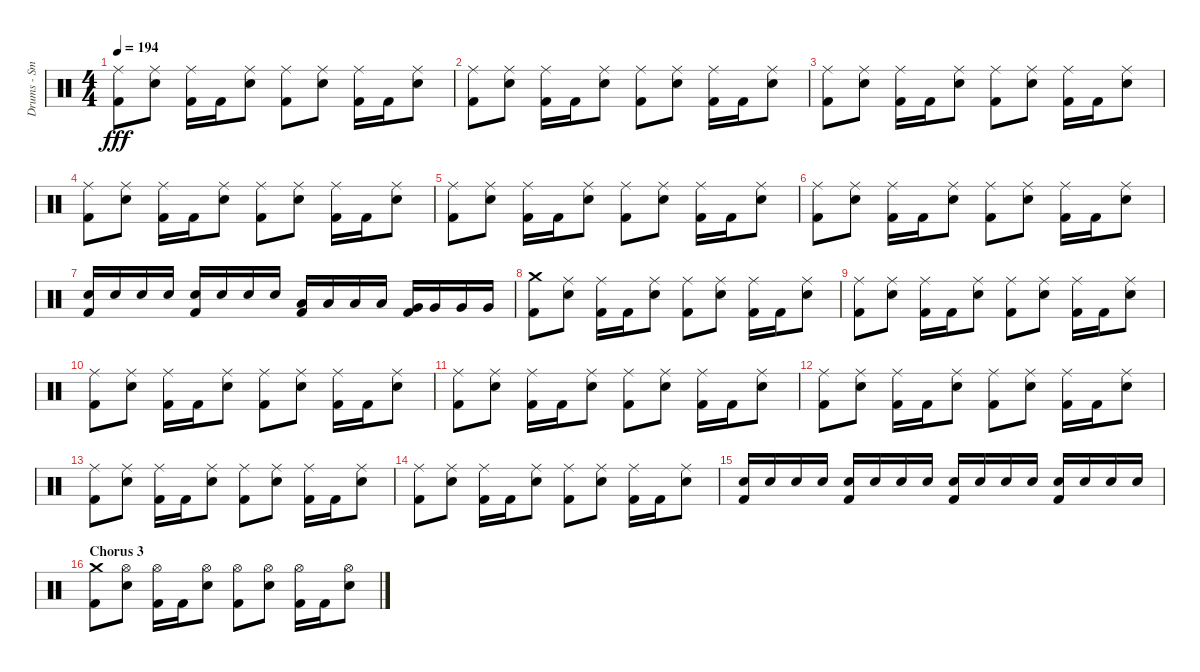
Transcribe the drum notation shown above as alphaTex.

\track ("Drums - Smelly" "Drums - Sm") {instrument percussion}
\staff {score}
\articulation defaults
\ts (4 4)
\tempo 194
\clef neutral
\ks c
("Kick (hit) 2" "Ride (middle)").8{dy fff} ("Electric Snare (hit)" "Ride (middle)").8 ("Kick (hit) 2" "Ride (middle)").16 "Kick (hit) 2".16 ("Electric Snare (hit)" "Ride (middle)").8 ("Kick (hit) 2" "Ride (middle)").8 ("Electric Snare (hit)" "Ride (middle)").8 ("Kick (hit) 2" "Ride (middle)").16 "Kick (hit) 2".16 ("Electric Snare (hit)" "Ride (middle)").8 |
("Kick (hit) 2" "Ride (middle)").8 ("Electric Snare (hit)" "Ride (middle)").8 ("Kick (hit) 2" "Ride (middle)").16 "Kick (hit) 2".16 ("Electric Snare (hit)" "Ride (middle)").8 ("Kick (hit) 2" "Ride (middle)").8 ("Electric Snare (hit)" "Ride (middle)").8 ("Kick (hit) 2" "Ride (middle)").16 "Kick (hit) 2".16 ("Electric Snare (hit)" "Ride (middle)").8 |
("Kick (hit) 2" "Ride (middle)").8 ("Electric Snare (hit)" "Ride (middle)").8 ("Kick (hit) 2" "Ride (middle)").16 "Kick (hit) 2".16 ("Electric Snare (hit)" "Ride (middle)").8 ("Kick (hit) 2" "Ride (middle)").8 ("Electric Snare (hit)" "Ride (middle)").8 ("Kick (hit) 2" "Ride (middle)").16 "Kick (hit) 2".16 ("Electric Snare (hit)" "Ride (middle)").8 |
("Kick (hit) 2" "Ride (middle)").8 ("Electric Snare (hit)" "Ride (middle)").8 ("Kick (hit) 2" "Ride (middle)").16 "Kick (hit) 2".16 ("Electric Snare (hit)" "Ride (middle)").8 ("Kick (hit) 2" "Ride (middle)").8 ("Electric Snare (hit)" "Ride (middle)").8 ("Kick (hit) 2" "Ride (middle)").16 "Kick (hit) 2".16 ("Electric Snare (hit)" "Ride (middle)").8 |
("Kick (hit) 2" "Ride (middle)").8 ("Electric Snare (hit)" "Ride (middle)").8 ("Kick (hit) 2" "Ride (middle)").16 "Kick (hit) 2".16 ("Electric Snare (hit)" "Ride (middle)").8 ("Kick (hit) 2" "Ride (middle)").8 ("Electric Snare (hit)" "Ride (middle)").8 ("Kick (hit) 2" "Ride (middle)").16 "Kick (hit) 2".16 ("Electric Snare (hit)" "Ride (middle)").8 |
("Kick (hit) 2" "Ride (middle)").8 ("Electric Snare (hit)" "Ride (middle)").8 ("Kick (hit) 2" "Ride (middle)").16 "Kick (hit) 2".16 ("Electric Snare (hit)" "Ride (middle)").8 ("Kick (hit) 2" "Ride (middle)").8 ("Electric Snare (hit)" "Ride (middle)").8 ("Kick (hit) 2" "Ride (middle)").16 "Kick (hit) 2".16 ("Electric Snare (hit)" "Ride (middle)").8 |
("Electric Snare (hit)" "Kick (hit) 2").16 "Electric Snare (hit)".16 "Electric Snare (hit)".16 "Electric Snare (hit)".16 ("Electric Snare (hit)" "Kick (hit) 2").16 "Electric Snare (hit)".16 "Electric Snare (hit)".16 "Electric Snare (hit)".16 ("Kick (hit) 2" "Low Tom (hit)").16 "Low Tom (hit)".16 "Low Tom (hit)".16 "Low Tom (hit)".16 ("Kick (hit) 2" "Very Low Tom (hit)").16 "Very Low Tom (hit)".16 "Very Low Tom (hit)".16 "Very Low Tom (hit)".16 |
("Kick (hit) 2" "Crash medium (hit)").8 ("Electric Snare (hit)" "Ride (middle)").8 ("Kick (hit) 2" "Ride (middle)").16 "Kick (hit) 2".16 ("Electric Snare (hit)" "Ride (middle)").8 ("Kick (hit) 2" "Ride (middle)").8 ("Electric Snare (hit)" "Ride (middle)").8 ("Kick (hit) 2" "Ride (middle)").16 "Kick (hit) 2".16 ("Electric Snare (hit)" "Ride (middle)").8 |
("Kick (hit) 2" "Ride (middle)").8 ("Electric Snare (hit)" "Ride (middle)").8 ("Kick (hit) 2" "Ride (middle)").16 "Kick (hit) 2".16 ("Electric Snare (hit)" "Ride (middle)").8 ("Kick (hit) 2" "Ride (middle)").8 ("Electric Snare (hit)" "Ride (middle)").8 ("Kick (hit) 2" "Ride (middle)").16 "Kick (hit) 2".16 ("Electric Snare (hit)" "Ride (middle)").8 |
("Kick (hit) 2" "Ride (middle)").8 ("Electric Snare (hit)" "Ride (middle)").8 ("Kick (hit) 2" "Ride (middle)").16 "Kick (hit) 2".16 ("Electric Snare (hit)" "Ride (middle)").8 ("Kick (hit) 2" "Ride (middle)").8 ("Electric Snare (hit)" "Ride (middle)").8 ("Kick (hit) 2" "Ride (middle)").16 "Kick (hit) 2".16 ("Electric Snare (hit)" "Ride (middle)").8 |
("Kick (hit) 2" "Ride (middle)").8 ("Electric Snare (hit)" "Ride (middle)").8 ("Kick (hit) 2" "Ride (middle)").16 "Kick (hit) 2".16 ("Electric Snare (hit)" "Ride (middle)").8 ("Kick (hit) 2" "Ride (middle)").8 ("Electric Snare (hit)" "Ride (middle)").8 ("Kick (hit) 2" "Ride (middle)").16 "Kick (hit) 2".16 ("Electric Snare (hit)" "Ride (middle)").8 |
("Kick (hit) 2" "Ride (middle)").8 ("Electric Snare (hit)" "Ride (middle)").8 ("Kick (hit) 2" "Ride (middle)").16 "Kick (hit) 2".16 ("Electric Snare (hit)" "Ride (middle)").8 ("Kick (hit) 2" "Ride (middle)").8 ("Electric Snare (hit)" "Ride (middle)").8 ("Kick (hit) 2" "Ride (middle)").16 "Kick (hit) 2".16 ("Electric Snare (hit)" "Ride (middle)").8 |
("Kick (hit) 2" "Ride (middle)").8 ("Electric Snare (hit)" "Ride (middle)").8 ("Kick (hit) 2" "Ride (middle)").16 "Kick (hit) 2".16 ("Electric Snare (hit)" "Ride (middle)").8 ("Kick (hit) 2" "Ride (middle)").8 ("Electric Snare (hit)" "Ride (middle)").8 ("Kick (hit) 2" "Ride (middle)").16 "Kick (hit) 2".16 ("Electric Snare (hit)" "Ride (middle)").8 |
("Kick (hit) 2" "Ride (middle)").8 ("Electric Snare (hit)" "Ride (middle)").8 ("Kick (hit) 2" "Ride (middle)").16 "Kick (hit) 2".16 ("Electric Snare (hit)" "Ride (middle)").8 ("Kick (hit) 2" "Ride (middle)").8 ("Electric Snare (hit)" "Ride (middle)").8 ("Kick (hit) 2" "Ride (middle)").16 "Kick (hit) 2".16 ("Electric Snare (hit)" "Ride (middle)").8 |
("Electric Snare (hit)" "Kick (hit) 2").16 "Electric Snare (hit)".16 "Electric Snare (hit)".16 "Electric Snare (hit)".16 ("Electric Snare (hit)" "Kick (hit) 2").16 "Electric Snare (hit)".16 "Electric Snare (hit)".16 "Electric Snare (hit)".16 ("Electric Snare (hit)" "Kick (hit) 2").16 "Electric Snare (hit)".16 "Electric Snare (hit)".16 "Electric Snare (hit)".16 ("Electric Snare (hit)" "Kick (hit) 2").16 "Electric Snare (hit)".16 "Electric Snare (hit)".16 "Electric Snare (hit)".16 |
\section ("" "Chorus 3")
("Kick (hit) 2" "Crash medium (hit)").8 ("Electric Snare (hit)" "Hi-Hat (open)").8 ("Kick (hit) 2" "Hi-Hat (open)").16 "Kick (hit) 2".16 ("Electric Snare (hit)" "Hi-Hat (open)").8 ("Kick (hit) 2" "Hi-Hat (open)").8 ("Electric Snare (hit)" "Hi-Hat (open)").8 ("Kick (hit) 2" "Hi-Hat (open)").16 "Kick (hit) 2".16 ("Electric Snare (hit)" "Hi-Hat (open)").8
